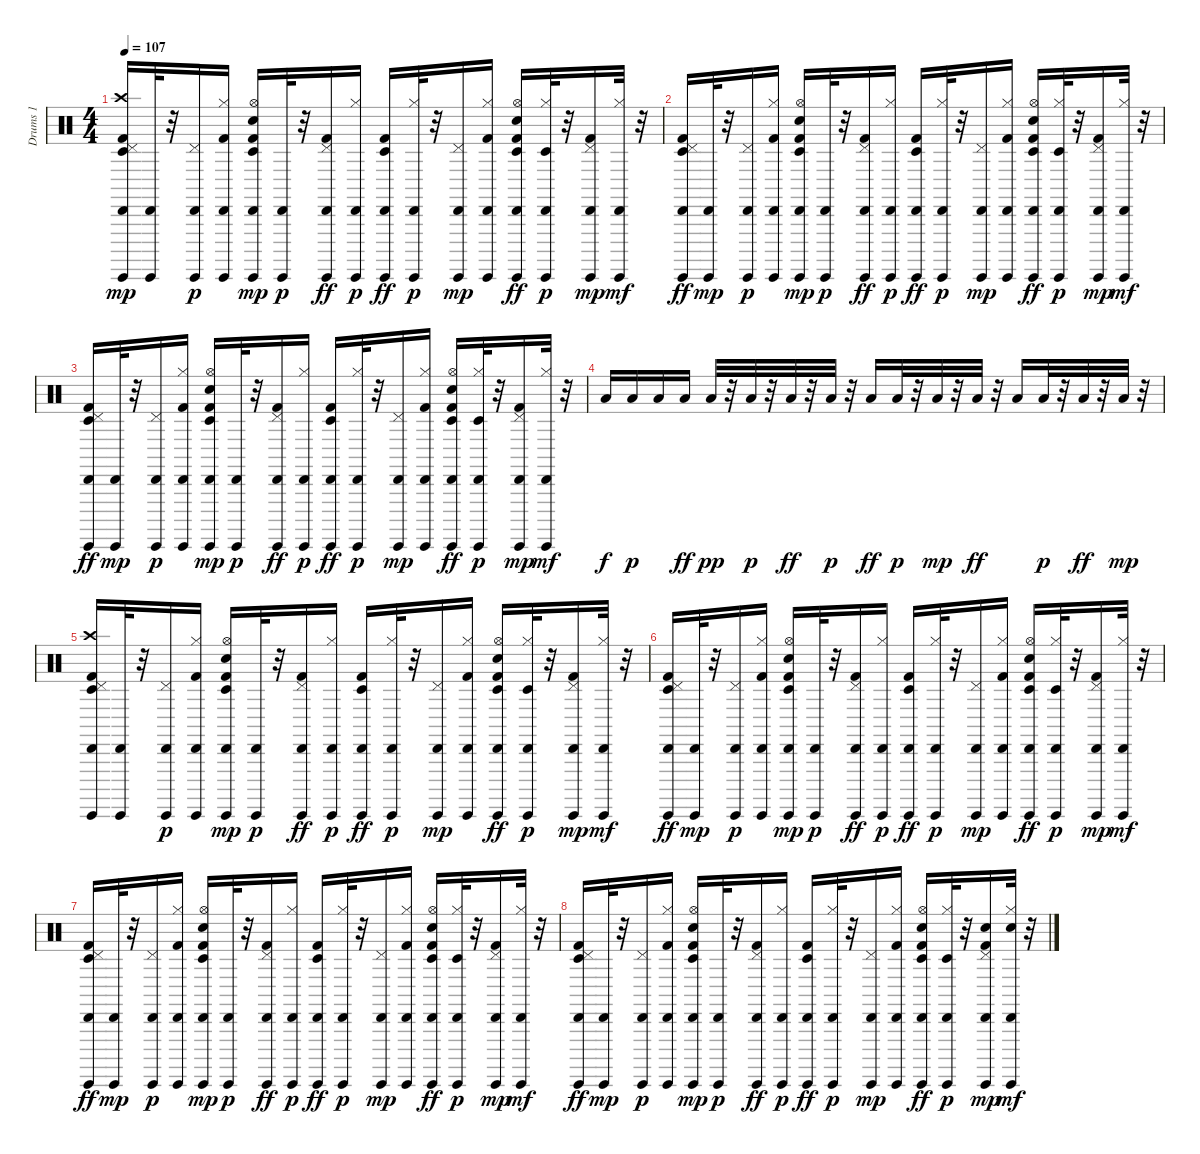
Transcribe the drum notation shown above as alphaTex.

\track ("Drums 1" "Drums 1") {instrument percussion}
\staff {score}
\articulation defaults
\ts (4 4)
\tempo 107
\clef neutral
\ks c
("Timbale low (hit)" "Kick (hit) 2" "Pedal Hi-Hat (hit)" "Guiro (hit)" "Cabasa (hit)" "Crash high (hit)").16{dy mp} ("Guiro (hit)" "Cabasa (hit)").32 r.32 ("Pedal Hi-Hat (hit)" "Guiro (hit)" "Cabasa (hit)").16{dy p} ("Kick (hit) 2" "Hi-Hat (closed)" "Guiro (hit)" "Cabasa (hit)").16 ("Timbale low (hit)" "Kick (hit) 2" "Electric Snare (hit)" "Hi-Hat (open)" "Guiro (hit)" "Cabasa (hit)").16{dy mp} ("Guiro (hit)" "Cabasa (hit)").32{dy p} r.32 ("Kick (hit) 2" "Pedal Hi-Hat (hit)" "Guiro (hit)" "Cabasa (hit)").16{dy ff} ("Hi-Hat (closed)" "Guiro (hit)" "Cabasa (hit)").16{dy p} ("Timbale low (hit)" "Kick (hit) 2" "Guiro (hit)" "Cabasa (hit)").16{dy ff} ("Hi-Hat (closed)" "Guiro (hit)" "Cabasa (hit)").32{dy p} r.32 ("Pedal Hi-Hat (hit)" "Guiro (hit)" "Cabasa (hit)").16{dy mp} ("Kick (hit) 2" "Hi-Hat (closed)" "Guiro (hit)" "Cabasa (hit)").16 ("Timbale low (hit)" "Kick (hit) 2" "Electric Snare (hit)" "Hi-Hat (open)" "Guiro (hit)" "Cabasa (hit)").16{dy ff} ("Timbale low (hit)" "Hi-Hat (closed)" "Guiro (hit)" "Cabasa (hit)").32{dy p} r.32 ("Kick (hit) 2" "Pedal Hi-Hat (hit)" "Guiro (hit)" "Cabasa (hit)").16{dy mp} ("Hi-Hat (closed)" "Guiro (hit)" "Cabasa (hit)").32{dy mf} r.32 |
("Timbale low (hit)" "Kick (hit) 2" "Pedal Hi-Hat (hit)" "Guiro (hit)" "Cabasa (hit)").16{dy ff} ("Guiro (hit)" "Cabasa (hit)").32{dy mp} r.32 ("Pedal Hi-Hat (hit)" "Guiro (hit)" "Cabasa (hit)").16{dy p} ("Kick (hit) 2" "Hi-Hat (closed)" "Guiro (hit)" "Cabasa (hit)").16 ("Timbale low (hit)" "Kick (hit) 2" "Electric Snare (hit)" "Hi-Hat (open)" "Guiro (hit)" "Cabasa (hit)").16{dy mp} ("Guiro (hit)" "Cabasa (hit)").32{dy p} r.32 ("Kick (hit) 2" "Pedal Hi-Hat (hit)" "Guiro (hit)" "Cabasa (hit)").16{dy ff} ("Hi-Hat (closed)" "Guiro (hit)" "Cabasa (hit)").16{dy p} ("Timbale low (hit)" "Kick (hit) 2" "Guiro (hit)" "Cabasa (hit)").16{dy ff} ("Hi-Hat (closed)" "Guiro (hit)" "Cabasa (hit)").32{dy p} r.32 ("Pedal Hi-Hat (hit)" "Guiro (hit)" "Cabasa (hit)").16{dy mp} ("Kick (hit) 2" "Hi-Hat (closed)" "Guiro (hit)" "Cabasa (hit)").16 ("Timbale low (hit)" "Kick (hit) 2" "Electric Snare (hit)" "Hi-Hat (open)" "Guiro (hit)" "Cabasa (hit)").16{dy ff} ("Timbale low (hit)" "Hi-Hat (closed)" "Guiro (hit)" "Cabasa (hit)").32{dy p} r.32 ("Kick (hit) 2" "Pedal Hi-Hat (hit)" "Guiro (hit)" "Cabasa (hit)").16{dy mp} ("Hi-Hat (closed)" "Guiro (hit)" "Cabasa (hit)").32{dy mf} r.32 |
("Timbale low (hit)" "Kick (hit) 2" "Pedal Hi-Hat (hit)" "Guiro (hit)" "Cabasa (hit)").16{dy ff} ("Guiro (hit)" "Cabasa (hit)").32{dy mp} r.32 ("Pedal Hi-Hat (hit)" "Guiro (hit)" "Cabasa (hit)").16{dy p} ("Kick (hit) 2" "Hi-Hat (closed)" "Guiro (hit)" "Cabasa (hit)").16 ("Timbale low (hit)" "Kick (hit) 2" "Electric Snare (hit)" "Hi-Hat (open)" "Guiro (hit)" "Cabasa (hit)").16{dy mp} ("Guiro (hit)" "Cabasa (hit)").32{dy p} r.32 ("Kick (hit) 2" "Pedal Hi-Hat (hit)" "Guiro (hit)" "Cabasa (hit)").16{dy ff} ("Hi-Hat (closed)" "Guiro (hit)" "Cabasa (hit)").16{dy p} ("Timbale low (hit)" "Kick (hit) 2" "Guiro (hit)" "Cabasa (hit)").16{dy ff} ("Hi-Hat (closed)" "Guiro (hit)" "Cabasa (hit)").32{dy p} r.32 ("Pedal Hi-Hat (hit)" "Guiro (hit)" "Cabasa (hit)").16{dy mp} ("Kick (hit) 2" "Hi-Hat (closed)" "Guiro (hit)" "Cabasa (hit)").16 ("Timbale low (hit)" "Kick (hit) 2" "Electric Snare (hit)" "Hi-Hat (open)" "Guiro (hit)" "Cabasa (hit)").16{dy ff} ("Timbale low (hit)" "Hi-Hat (closed)" "Guiro (hit)" "Cabasa (hit)").32{dy p} r.32 ("Kick (hit) 2" "Pedal Hi-Hat (hit)" "Guiro (hit)" "Cabasa (hit)").16{dy mp} ("Hi-Hat (closed)" "Guiro (hit)" "Cabasa (hit)").32{dy mf} r.32 |
"Low Floor Tom (hit)".16{dy f} "Low Floor Tom (hit)".16{dy p} "Low Floor Tom (hit)".16 "Low Floor Tom (hit)".16{dy ff} "Low Floor Tom (hit)".32{dy pp} r.32 "Low Floor Tom (hit)".32{dy p} r.32 "Low Floor Tom (hit)".32{dy ff} r.32 "Low Floor Tom (hit)".32{dy p} r.32 "Low Floor Tom (hit)".16{dy ff} "Low Floor Tom (hit)".32{dy p} r.32 "Low Floor Tom (hit)".32{dy mp} r.32 "Low Floor Tom (hit)".32{dy ff} r.32 "Low Floor Tom (hit)".16 "Low Floor Tom (hit)".32{dy p} r.32 "Low Floor Tom (hit)".32{dy ff} r.32 "Low Floor Tom (hit)".32{dy mp} r.32 |
("Timbale low (hit)" "Kick (hit) 2" "Pedal Hi-Hat (hit)" "Guiro (hit)" "Cabasa (hit)" "Crash high (hit)").16 ("Guiro (hit)" "Cabasa (hit)").32 r.32 ("Pedal Hi-Hat (hit)" "Guiro (hit)" "Cabasa (hit)").16{dy p} ("Kick (hit) 2" "Hi-Hat (closed)" "Guiro (hit)" "Cabasa (hit)").16 ("Timbale low (hit)" "Kick (hit) 2" "Snare (hit) 2" "Hi-Hat (open)" "Guiro (hit)" "Cabasa (hit)").16{dy mp} ("Guiro (hit)" "Cabasa (hit)").32{dy p} r.32 ("Kick (hit) 2" "Pedal Hi-Hat (hit)" "Guiro (hit)" "Cabasa (hit)").16{dy ff} ("Hi-Hat (closed)" "Guiro (hit)" "Cabasa (hit)").16{dy p} ("Timbale low (hit)" "Kick (hit) 2" "Guiro (hit)" "Cabasa (hit)").16{dy ff} ("Hi-Hat (closed)" "Guiro (hit)" "Cabasa (hit)").32{dy p} r.32 ("Pedal Hi-Hat (hit)" "Guiro (hit)" "Cabasa (hit)").16{dy mp} ("Kick (hit) 2" "Hi-Hat (closed)" "Guiro (hit)" "Cabasa (hit)").16 ("Timbale low (hit)" "Kick (hit) 2" "Snare (hit) 2" "Hi-Hat (open)" "Guiro (hit)" "Cabasa (hit)").16{dy ff} ("Timbale low (hit)" "Hi-Hat (closed)" "Guiro (hit)" "Cabasa (hit)").32{dy p} r.32 ("Kick (hit) 2" "Pedal Hi-Hat (hit)" "Guiro (hit)" "Cabasa (hit)").16{dy mp} ("Hi-Hat (closed)" "Guiro (hit)" "Cabasa (hit)").32{dy mf} r.32 |
("Timbale low (hit)" "Kick (hit) 2" "Pedal Hi-Hat (hit)" "Guiro (hit)" "Cabasa (hit)").16{dy ff} ("Guiro (hit)" "Cabasa (hit)").32{dy mp} r.32 ("Pedal Hi-Hat (hit)" "Guiro (hit)" "Cabasa (hit)").16{dy p} ("Kick (hit) 2" "Hi-Hat (closed)" "Guiro (hit)" "Cabasa (hit)").16 ("Timbale low (hit)" "Kick (hit) 2" "Snare (hit) 2" "Hi-Hat (open)" "Guiro (hit)" "Cabasa (hit)").16{dy mp} ("Guiro (hit)" "Cabasa (hit)").32{dy p} r.32 ("Kick (hit) 2" "Pedal Hi-Hat (hit)" "Guiro (hit)" "Cabasa (hit)").16{dy ff} ("Hi-Hat (closed)" "Guiro (hit)" "Cabasa (hit)").16{dy p} ("Timbale low (hit)" "Kick (hit) 2" "Guiro (hit)" "Cabasa (hit)").16{dy ff} ("Hi-Hat (closed)" "Guiro (hit)" "Cabasa (hit)").32{dy p} r.32 ("Pedal Hi-Hat (hit)" "Guiro (hit)" "Cabasa (hit)").16{dy mp} ("Kick (hit) 2" "Hi-Hat (closed)" "Guiro (hit)" "Cabasa (hit)").16 ("Timbale low (hit)" "Kick (hit) 2" "Snare (hit) 2" "Hi-Hat (open)" "Guiro (hit)" "Cabasa (hit)").16{dy ff} ("Timbale low (hit)" "Hi-Hat (closed)" "Guiro (hit)" "Cabasa (hit)").32{dy p} r.32 ("Kick (hit) 2" "Pedal Hi-Hat (hit)" "Guiro (hit)" "Cabasa (hit)").16{dy mp} ("Hi-Hat (closed)" "Guiro (hit)" "Cabasa (hit)").32{dy mf} r.32 |
("Timbale low (hit)" "Kick (hit) 2" "Pedal Hi-Hat (hit)" "Guiro (hit)" "Cabasa (hit)").16{dy ff} ("Guiro (hit)" "Cabasa (hit)").32{dy mp} r.32 ("Pedal Hi-Hat (hit)" "Guiro (hit)" "Cabasa (hit)").16{dy p} ("Kick (hit) 2" "Hi-Hat (closed)" "Guiro (hit)" "Cabasa (hit)").16 ("Timbale low (hit)" "Kick (hit) 2" "Snare (hit) 2" "Hi-Hat (open)" "Guiro (hit)" "Cabasa (hit)").16{dy mp} ("Guiro (hit)" "Cabasa (hit)").32{dy p} r.32 ("Kick (hit) 2" "Pedal Hi-Hat (hit)" "Guiro (hit)" "Cabasa (hit)").16{dy ff} ("Hi-Hat (closed)" "Guiro (hit)" "Cabasa (hit)").16{dy p} ("Timbale low (hit)" "Kick (hit) 2" "Guiro (hit)" "Cabasa (hit)").16{dy ff} ("Hi-Hat (closed)" "Guiro (hit)" "Cabasa (hit)").32{dy p} r.32 ("Pedal Hi-Hat (hit)" "Guiro (hit)" "Cabasa (hit)").16{dy mp} ("Kick (hit) 2" "Hi-Hat (closed)" "Guiro (hit)" "Cabasa (hit)").16 ("Timbale low (hit)" "Kick (hit) 2" "Snare (hit) 2" "Hi-Hat (open)" "Guiro (hit)" "Cabasa (hit)").16{dy ff} ("Timbale low (hit)" "Hi-Hat (closed)" "Guiro (hit)" "Cabasa (hit)").32{dy p} r.32 ("Kick (hit) 2" "Pedal Hi-Hat (hit)" "Guiro (hit)" "Cabasa (hit)").16{dy mp} ("Hi-Hat (closed)" "Guiro (hit)" "Cabasa (hit)").32{dy mf} r.32 |
("Timbale low (hit)" "Kick (hit) 2" "Pedal Hi-Hat (hit)" "Guiro (hit)" "Cabasa (hit)").16{dy ff} ("Guiro (hit)" "Cabasa (hit)").32{dy mp} r.32 ("Pedal Hi-Hat (hit)" "Guiro (hit)" "Cabasa (hit)").16{dy p} ("Kick (hit) 2" "Hi-Hat (closed)" "Guiro (hit)" "Cabasa (hit)").16 ("Timbale low (hit)" "Kick (hit) 2" "Snare (hit) 2" "Hi-Hat (open)" "Guiro (hit)" "Cabasa (hit)").16{dy mp} ("Guiro (hit)" "Cabasa (hit)").32{dy p} r.32 ("Kick (hit) 2" "Pedal Hi-Hat (hit)" "Guiro (hit)" "Cabasa (hit)").16{dy ff} ("Hi-Hat (closed)" "Guiro (hit)" "Cabasa (hit)").16{dy p} ("Timbale low (hit)" "Kick (hit) 2" "Guiro (hit)" "Cabasa (hit)").16{dy ff} ("Hi-Hat (closed)" "Guiro (hit)" "Cabasa (hit)").32{dy p} r.32 ("Pedal Hi-Hat (hit)" "Guiro (hit)" "Cabasa (hit)").16{dy mp} ("Kick (hit) 2" "Hi-Hat (closed)" "Guiro (hit)" "Cabasa (hit)").16 ("Timbale low (hit)" "Kick (hit) 2" "Snare (hit) 2" "Hi-Hat (open)" "Guiro (hit)" "Cabasa (hit)").16{dy ff} ("Timbale low (hit)" "Hi-Hat (closed)" "Guiro (hit)" "Cabasa (hit)").32{dy p} r.32 ("Kick (hit) 2" "Pedal Hi-Hat (hit)" "Guiro (hit)" "Snare (hit) 2" "Cabasa (hit)").16{dy mp} ("Hi-Hat (closed)" "Guiro (hit)" "Snare (hit) 2" "Cabasa (hit)").32{dy mf} r.32
